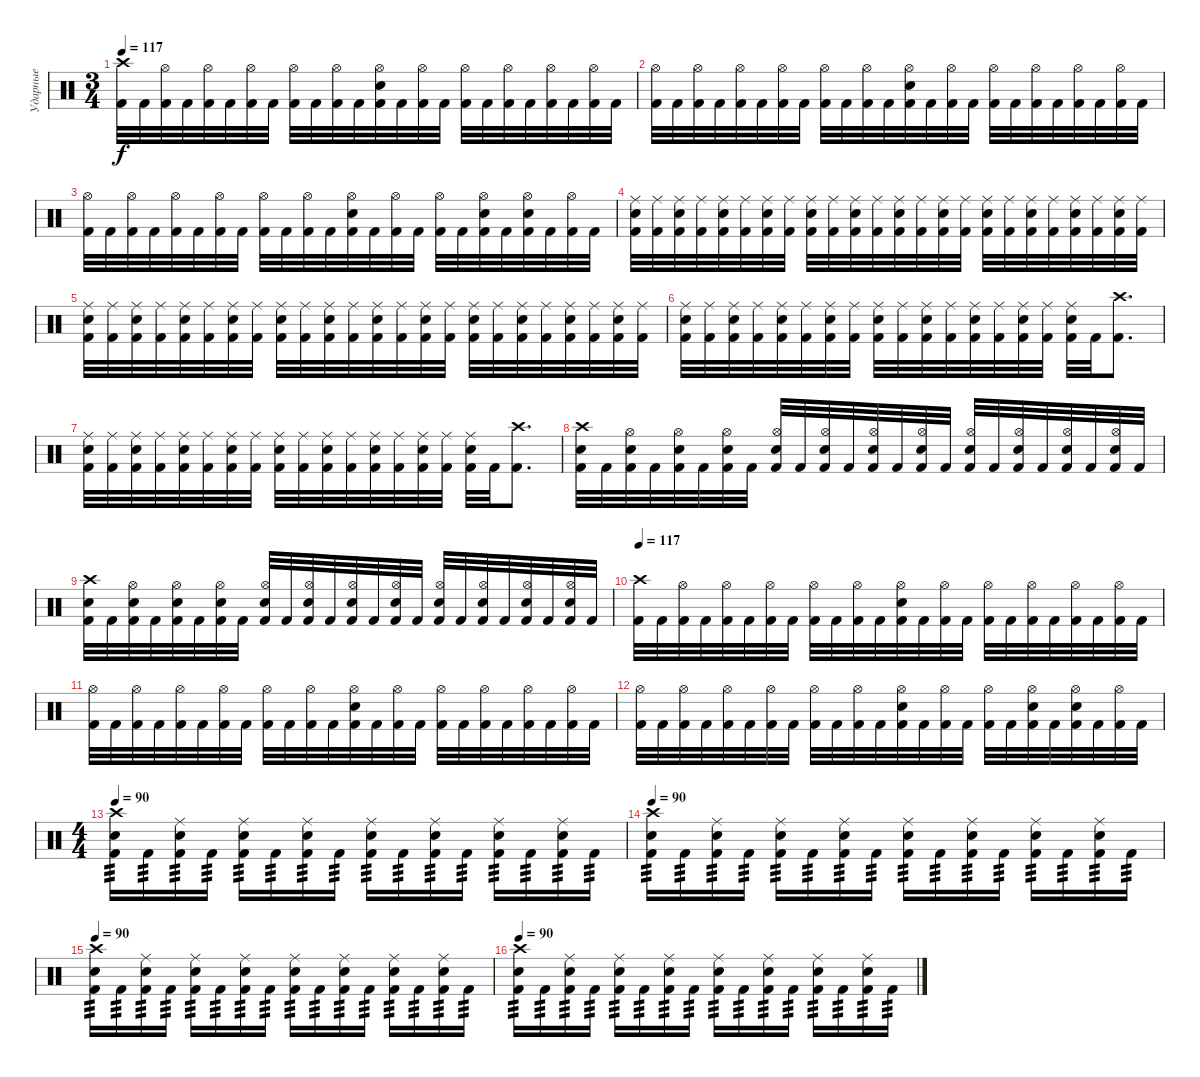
\track ("Ударные" "Ударные") {instrument percussion}
\staff {score}
\articulation defaults
\ts (3 4)
\tempo 117
\clef neutral
\ks c
("Crash high (hit)" "Kick (hit) 2").32{dy f} "Kick (hit) 2".32 ("Hi-Hat (open)" "Kick (hit) 2").32 "Kick (hit) 2".32 ("Hi-Hat (open)" "Kick (hit) 2").32 "Kick (hit) 2".32 ("Hi-Hat (open)" "Kick (hit) 2").32 "Kick (hit) 2".32 ("Hi-Hat (open)" "Kick (hit) 2").32 "Kick (hit) 2".32 ("Hi-Hat (open)" "Kick (hit) 2").32 "Kick (hit) 2".32 ("Hi-Hat (open)" "Electric Snare (hit)" "Kick (hit) 2").32 "Kick (hit) 2".32 ("Hi-Hat (open)" "Kick (hit) 2").32 "Kick (hit) 2".32 ("Hi-Hat (open)" "Kick (hit) 2").32 "Kick (hit) 2".32 ("Hi-Hat (open)" "Kick (hit) 2").32 "Kick (hit) 2".32 ("Hi-Hat (open)" "Kick (hit) 2").32 "Kick (hit) 2".32 ("Hi-Hat (open)" "Kick (hit) 2").32 "Kick (hit) 2".32 |
("Hi-Hat (open)" "Kick (hit) 2").32 "Kick (hit) 2".32 ("Hi-Hat (open)" "Kick (hit) 2").32 "Kick (hit) 2".32 ("Hi-Hat (open)" "Kick (hit) 2").32 "Kick (hit) 2".32 ("Hi-Hat (open)" "Kick (hit) 2").32 "Kick (hit) 2".32 ("Hi-Hat (open)" "Kick (hit) 2").32 "Kick (hit) 2".32 ("Hi-Hat (open)" "Kick (hit) 2").32 "Kick (hit) 2".32 ("Hi-Hat (open)" "Electric Snare (hit)" "Kick (hit) 2").32 "Kick (hit) 2".32 ("Hi-Hat (open)" "Kick (hit) 2").32 "Kick (hit) 2".32 ("Hi-Hat (open)" "Kick (hit) 2").32 "Kick (hit) 2".32 ("Hi-Hat (open)" "Kick (hit) 2").32 "Kick (hit) 2".32 ("Hi-Hat (open)" "Kick (hit) 2").32 "Kick (hit) 2".32 ("Hi-Hat (open)" "Kick (hit) 2").32 "Kick (hit) 2".32 |
("Hi-Hat (open)" "Kick (hit) 2").32 "Kick (hit) 2".32 ("Hi-Hat (open)" "Kick (hit) 2").32 "Kick (hit) 2".32 ("Hi-Hat (open)" "Kick (hit) 2").32 "Kick (hit) 2".32 ("Hi-Hat (open)" "Kick (hit) 2").32 "Kick (hit) 2".32 ("Hi-Hat (open)" "Kick (hit) 2").32 "Kick (hit) 2".32 ("Hi-Hat (open)" "Kick (hit) 2").32 "Kick (hit) 2".32 ("Hi-Hat (open)" "Electric Snare (hit)" "Kick (hit) 2").32 "Kick (hit) 2".32 ("Hi-Hat (open)" "Kick (hit) 2").32 "Kick (hit) 2".32 ("Hi-Hat (open)" "Kick (hit) 2").32 "Kick (hit) 2".32 ("Hi-Hat (open)" "Electric Snare (hit)" "Kick (hit) 2").32 "Kick (hit) 2".32 ("Hi-Hat (open)" "Electric Snare (hit)" "Kick (hit) 2").32 "Kick (hit) 2".32 ("Hi-Hat (open)" "Kick (hit) 2").32 "Kick (hit) 2".32 |
("Ride (middle)" "Electric Snare (hit)" "Kick (hit) 2").32 ("Ride (middle)" "Kick (hit) 2").32 ("Ride (middle)" "Electric Snare (hit)" "Kick (hit) 2").32 ("Ride (middle)" "Kick (hit) 2").32 ("Ride (middle)" "Electric Snare (hit)" "Kick (hit) 2").32 ("Ride (middle)" "Kick (hit) 2").32 ("Ride (middle)" "Electric Snare (hit)" "Kick (hit) 2").32 ("Ride (middle)" "Kick (hit) 2").32 ("Ride (middle)" "Electric Snare (hit)" "Kick (hit) 2").32 ("Ride (middle)" "Kick (hit) 2").32 ("Ride (middle)" "Electric Snare (hit)" "Kick (hit) 2").32 ("Ride (middle)" "Kick (hit) 2").32 ("Ride (middle)" "Electric Snare (hit)" "Kick (hit) 2").32 ("Ride (middle)" "Kick (hit) 2").32 ("Ride (middle)" "Electric Snare (hit)" "Kick (hit) 2").32 ("Ride (middle)" "Kick (hit) 2").32 ("Ride (middle)" "Electric Snare (hit)" "Kick (hit) 2").32 ("Ride (middle)" "Kick (hit) 2").32 ("Ride (middle)" "Electric Snare (hit)" "Kick (hit) 2").32 ("Ride (middle)" "Kick (hit) 2").32 ("Ride (middle)" "Electric Snare (hit)" "Kick (hit) 2").32 ("Ride (middle)" "Kick (hit) 2").32 ("Ride (middle)" "Electric Snare (hit)" "Kick (hit) 2").32 ("Ride (middle)" "Kick (hit) 2").32 |
("Ride (middle)" "Electric Snare (hit)" "Kick (hit) 2").32 ("Ride (middle)" "Kick (hit) 2").32 ("Ride (middle)" "Electric Snare (hit)" "Kick (hit) 2").32 ("Ride (middle)" "Kick (hit) 2").32 ("Ride (middle)" "Electric Snare (hit)" "Kick (hit) 2").32 ("Ride (middle)" "Kick (hit) 2").32 ("Ride (middle)" "Electric Snare (hit)" "Kick (hit) 2").32 ("Ride (middle)" "Kick (hit) 2").32 ("Ride (middle)" "Electric Snare (hit)" "Kick (hit) 2").32 ("Ride (middle)" "Kick (hit) 2").32 ("Ride (middle)" "Electric Snare (hit)" "Kick (hit) 2").32 ("Ride (middle)" "Kick (hit) 2").32 ("Ride (middle)" "Electric Snare (hit)" "Kick (hit) 2").32 ("Ride (middle)" "Kick (hit) 2").32 ("Ride (middle)" "Electric Snare (hit)" "Kick (hit) 2").32 ("Ride (middle)" "Kick (hit) 2").32 ("Ride (middle)" "Electric Snare (hit)" "Kick (hit) 2").32 ("Ride (middle)" "Kick (hit) 2").32 ("Ride (middle)" "Electric Snare (hit)" "Kick (hit) 2").32 ("Ride (middle)" "Kick (hit) 2").32 ("Ride (middle)" "Electric Snare (hit)" "Kick (hit) 2").32 ("Ride (middle)" "Kick (hit) 2").32 ("Ride (middle)" "Electric Snare (hit)" "Kick (hit) 2").32 ("Ride (middle)" "Kick (hit) 2").32 |
("Ride (middle)" "Electric Snare (hit)" "Kick (hit) 2").32 ("Ride (middle)" "Kick (hit) 2").32 ("Ride (middle)" "Electric Snare (hit)" "Kick (hit) 2").32 ("Ride (middle)" "Kick (hit) 2").32 ("Ride (middle)" "Electric Snare (hit)" "Kick (hit) 2").32 ("Ride (middle)" "Kick (hit) 2").32 ("Ride (middle)" "Electric Snare (hit)" "Kick (hit) 2").32 ("Ride (middle)" "Kick (hit) 2").32 ("Ride (middle)" "Electric Snare (hit)" "Kick (hit) 2").32 ("Ride (middle)" "Kick (hit) 2").32 ("Ride (middle)" "Electric Snare (hit)" "Kick (hit) 2").32 ("Ride (middle)" "Kick (hit) 2").32 ("Ride (middle)" "Electric Snare (hit)" "Kick (hit) 2").32 ("Ride (middle)" "Kick (hit) 2").32 ("Ride (middle)" "Electric Snare (hit)" "Kick (hit) 2").32 ("Ride (middle)" "Kick (hit) 2").32 ("Ride (middle)" "Electric Snare (hit)" "Kick (hit) 2").32 "Kick (hit) 2".32 ("Crash high (hit)" "Kick (hit) 2").8{d} |
("Ride (middle)" "Electric Snare (hit)" "Kick (hit) 2").32 ("Ride (middle)" "Kick (hit) 2").32 ("Ride (middle)" "Electric Snare (hit)" "Kick (hit) 2").32 ("Ride (middle)" "Kick (hit) 2").32 ("Ride (middle)" "Electric Snare (hit)" "Kick (hit) 2").32 ("Ride (middle)" "Kick (hit) 2").32 ("Ride (middle)" "Electric Snare (hit)" "Kick (hit) 2").32 ("Ride (middle)" "Kick (hit) 2").32 ("Ride (middle)" "Electric Snare (hit)" "Kick (hit) 2").32 ("Ride (middle)" "Kick (hit) 2").32 ("Ride (middle)" "Electric Snare (hit)" "Kick (hit) 2").32 ("Ride (middle)" "Kick (hit) 2").32 ("Ride (middle)" "Electric Snare (hit)" "Kick (hit) 2").32 ("Ride (middle)" "Kick (hit) 2").32 ("Ride (middle)" "Electric Snare (hit)" "Kick (hit) 2").32 ("Ride (middle)" "Kick (hit) 2").32 ("Ride (middle)" "Electric Snare (hit)" "Kick (hit) 2").32 "Kick (hit) 2".32 ("Crash high (hit)" "Kick (hit) 2").8{d} |
("Crash high (hit)" "Electric Snare (hit)" "Kick (hit) 2").32 "Kick (hit) 2".32 ("Hi-Hat (open)" "Electric Snare (hit)" "Kick (hit) 2").32 "Kick (hit) 2".32 ("Hi-Hat (open)" "Electric Snare (hit)" "Kick (hit) 2").32 "Kick (hit) 2".32 ("Hi-Hat (open)" "Electric Snare (hit)" "Kick (hit) 2").32 "Kick (hit) 2".32 ("Hi-Hat (open)" "Electric Snare (hit)" "Kick (hit) 2").32 "Kick (hit) 2".32 ("Hi-Hat (open)" "Electric Snare (hit)" "Kick (hit) 2").32 "Kick (hit) 2".32 ("Hi-Hat (open)" "Electric Snare (hit)" "Kick (hit) 2").32 "Kick (hit) 2".32 ("Hi-Hat (open)" "Electric Snare (hit)" "Kick (hit) 2").32 "Kick (hit) 2".32 ("Hi-Hat (open)" "Electric Snare (hit)" "Kick (hit) 2").32 "Kick (hit) 2".32 ("Hi-Hat (open)" "Electric Snare (hit)" "Kick (hit) 2").32 "Kick (hit) 2".32 ("Hi-Hat (open)" "Electric Snare (hit)" "Kick (hit) 2").32 "Kick (hit) 2".32 ("Hi-Hat (open)" "Electric Snare (hit)" "Kick (hit) 2").32 "Kick (hit) 2".32 |
("Crash high (hit)" "Electric Snare (hit)" "Kick (hit) 2").32 "Kick (hit) 2".32 ("Hi-Hat (open)" "Electric Snare (hit)" "Kick (hit) 2").32 "Kick (hit) 2".32 ("Hi-Hat (open)" "Electric Snare (hit)" "Kick (hit) 2").32 "Kick (hit) 2".32 ("Hi-Hat (open)" "Electric Snare (hit)" "Kick (hit) 2").32 "Kick (hit) 2".32 ("Hi-Hat (open)" "Electric Snare (hit)" "Kick (hit) 2").32 "Kick (hit) 2".32 ("Hi-Hat (open)" "Electric Snare (hit)" "Kick (hit) 2").32 "Kick (hit) 2".32 ("Hi-Hat (open)" "Electric Snare (hit)" "Kick (hit) 2").32 "Kick (hit) 2".32 ("Hi-Hat (open)" "Electric Snare (hit)" "Kick (hit) 2").32 "Kick (hit) 2".32 ("Hi-Hat (open)" "Electric Snare (hit)" "Kick (hit) 2").32 "Kick (hit) 2".32 ("Hi-Hat (open)" "Electric Snare (hit)" "Kick (hit) 2").32 "Kick (hit) 2".32 ("Hi-Hat (open)" "Electric Snare (hit)" "Kick (hit) 2").32 "Kick (hit) 2".32 ("Hi-Hat (open)" "Electric Snare (hit)" "Kick (hit) 2").32 "Kick (hit) 2".32 |
\tempo 117
("Crash high (hit)" "Kick (hit) 2").32 "Kick (hit) 2".32 ("Hi-Hat (open)" "Kick (hit) 2").32 "Kick (hit) 2".32 ("Hi-Hat (open)" "Kick (hit) 2").32 "Kick (hit) 2".32 ("Hi-Hat (open)" "Kick (hit) 2").32 "Kick (hit) 2".32 ("Hi-Hat (open)" "Kick (hit) 2").32 "Kick (hit) 2".32 ("Hi-Hat (open)" "Kick (hit) 2").32 "Kick (hit) 2".32 ("Hi-Hat (open)" "Electric Snare (hit)" "Kick (hit) 2").32 "Kick (hit) 2".32 ("Hi-Hat (open)" "Kick (hit) 2").32 "Kick (hit) 2".32 ("Hi-Hat (open)" "Kick (hit) 2").32 "Kick (hit) 2".32 ("Hi-Hat (open)" "Kick (hit) 2").32 "Kick (hit) 2".32 ("Hi-Hat (open)" "Kick (hit) 2").32 "Kick (hit) 2".32 ("Hi-Hat (open)" "Kick (hit) 2").32 "Kick (hit) 2".32 |
("Hi-Hat (open)" "Kick (hit) 2").32 "Kick (hit) 2".32 ("Hi-Hat (open)" "Kick (hit) 2").32 "Kick (hit) 2".32 ("Hi-Hat (open)" "Kick (hit) 2").32 "Kick (hit) 2".32 ("Hi-Hat (open)" "Kick (hit) 2").32 "Kick (hit) 2".32 ("Hi-Hat (open)" "Kick (hit) 2").32 "Kick (hit) 2".32 ("Hi-Hat (open)" "Kick (hit) 2").32 "Kick (hit) 2".32 ("Hi-Hat (open)" "Electric Snare (hit)" "Kick (hit) 2").32 "Kick (hit) 2".32 ("Hi-Hat (open)" "Kick (hit) 2").32 "Kick (hit) 2".32 ("Hi-Hat (open)" "Kick (hit) 2").32 "Kick (hit) 2".32 ("Hi-Hat (open)" "Kick (hit) 2").32 "Kick (hit) 2".32 ("Hi-Hat (open)" "Kick (hit) 2").32 "Kick (hit) 2".32 ("Hi-Hat (open)" "Kick (hit) 2").32 "Kick (hit) 2".32 |
("Hi-Hat (open)" "Kick (hit) 2").32 "Kick (hit) 2".32 ("Hi-Hat (open)" "Kick (hit) 2").32 "Kick (hit) 2".32 ("Hi-Hat (open)" "Kick (hit) 2").32 "Kick (hit) 2".32 ("Hi-Hat (open)" "Kick (hit) 2").32 "Kick (hit) 2".32 ("Hi-Hat (open)" "Kick (hit) 2").32 "Kick (hit) 2".32 ("Hi-Hat (open)" "Kick (hit) 2").32 "Kick (hit) 2".32 ("Hi-Hat (open)" "Electric Snare (hit)" "Kick (hit) 2").32 "Kick (hit) 2".32 ("Hi-Hat (open)" "Kick (hit) 2").32 "Kick (hit) 2".32 ("Hi-Hat (open)" "Kick (hit) 2").32 "Kick (hit) 2".32 ("Hi-Hat (open)" "Electric Snare (hit)" "Kick (hit) 2").32 "Kick (hit) 2".32 ("Hi-Hat (open)" "Electric Snare (hit)" "Kick (hit) 2").32 "Kick (hit) 2".32 ("Hi-Hat (open)" "Kick (hit) 2").32 "Kick (hit) 2".32 |
\ts (4 4)
\tempo 90
("Crash high (hit)" "Electric Snare (hit)" "Kick (hit) 2").16{tp 3} "Kick (hit) 2".16{tp 3} ("Ride (middle)" "Electric Snare (hit)" "Kick (hit) 2").16{tp 3} "Kick (hit) 2".16{tp 3} ("Ride (middle)" "Electric Snare (hit)" "Kick (hit) 2").16{tp 3} "Kick (hit) 2".16{tp 3} ("Ride (middle)" "Electric Snare (hit)" "Kick (hit) 2").16{tp 3} "Kick (hit) 2".16{tp 3} ("Ride (middle)" "Electric Snare (hit)" "Kick (hit) 2").16{tp 3} "Kick (hit) 2".16{tp 3} ("Ride (middle)" "Electric Snare (hit)" "Kick (hit) 2").16{tp 3} "Kick (hit) 2".16{tp 3} ("Ride (middle)" "Electric Snare (hit)" "Kick (hit) 2").16{tp 3} "Kick (hit) 2".16{tp 3} ("Ride (middle)" "Electric Snare (hit)" "Kick (hit) 2").16{tp 3} "Kick (hit) 2".16{tp 3} |
\tempo 90
("Crash high (hit)" "Electric Snare (hit)" "Kick (hit) 2").16{tp 3} "Kick (hit) 2".16{tp 3} ("Ride (middle)" "Electric Snare (hit)" "Kick (hit) 2").16{tp 3} "Kick (hit) 2".16{tp 3} ("Ride (middle)" "Electric Snare (hit)" "Kick (hit) 2").16{tp 3} "Kick (hit) 2".16{tp 3} ("Ride (middle)" "Electric Snare (hit)" "Kick (hit) 2").16{tp 3} "Kick (hit) 2".16{tp 3} ("Ride (middle)" "Electric Snare (hit)" "Kick (hit) 2").16{tp 3} "Kick (hit) 2".16{tp 3} ("Ride (middle)" "Electric Snare (hit)" "Kick (hit) 2").16{tp 3} "Kick (hit) 2".16{tp 3} ("Ride (middle)" "Electric Snare (hit)" "Kick (hit) 2").16{tp 3} "Kick (hit) 2".16{tp 3} ("Ride (middle)" "Electric Snare (hit)" "Kick (hit) 2").16{tp 3} "Kick (hit) 2".16{tp 3} |
\tempo 90
("Crash high (hit)" "Electric Snare (hit)" "Kick (hit) 2").16{tp 3} "Kick (hit) 2".16{tp 3} ("Ride (middle)" "Electric Snare (hit)" "Kick (hit) 2").16{tp 3} "Kick (hit) 2".16{tp 3} ("Ride (middle)" "Electric Snare (hit)" "Kick (hit) 2").16{tp 3} "Kick (hit) 2".16{tp 3} ("Ride (middle)" "Electric Snare (hit)" "Kick (hit) 2").16{tp 3} "Kick (hit) 2".16{tp 3} ("Ride (middle)" "Electric Snare (hit)" "Kick (hit) 2").16{tp 3} "Kick (hit) 2".16{tp 3} ("Ride (middle)" "Electric Snare (hit)" "Kick (hit) 2").16{tp 3} "Kick (hit) 2".16{tp 3} ("Ride (middle)" "Electric Snare (hit)" "Kick (hit) 2").16{tp 3} "Kick (hit) 2".16{tp 3} ("Ride (middle)" "Electric Snare (hit)" "Kick (hit) 2").16{tp 3} "Kick (hit) 2".16{tp 3} |
\tempo 90
("Crash high (hit)" "Electric Snare (hit)" "Kick (hit) 2").16{tp 3} "Kick (hit) 2".16{tp 3} ("Ride (middle)" "Electric Snare (hit)" "Kick (hit) 2").16{tp 3} "Kick (hit) 2".16{tp 3} ("Ride (middle)" "Electric Snare (hit)" "Kick (hit) 2").16{tp 3} "Kick (hit) 2".16{tp 3} ("Ride (middle)" "Electric Snare (hit)" "Kick (hit) 2").16{tp 3} "Kick (hit) 2".16{tp 3} ("Ride (middle)" "Electric Snare (hit)" "Kick (hit) 2").16{tp 3} "Kick (hit) 2".16{tp 3} ("Ride (middle)" "Electric Snare (hit)" "Kick (hit) 2").16{tp 3} "Kick (hit) 2".16{tp 3} ("Ride (middle)" "Electric Snare (hit)" "Kick (hit) 2").16{tp 3} "Kick (hit) 2".16{tp 3} ("Ride (middle)" "Electric Snare (hit)" "Kick (hit) 2").16{tp 3} "Kick (hit) 2".16{tp 3}
